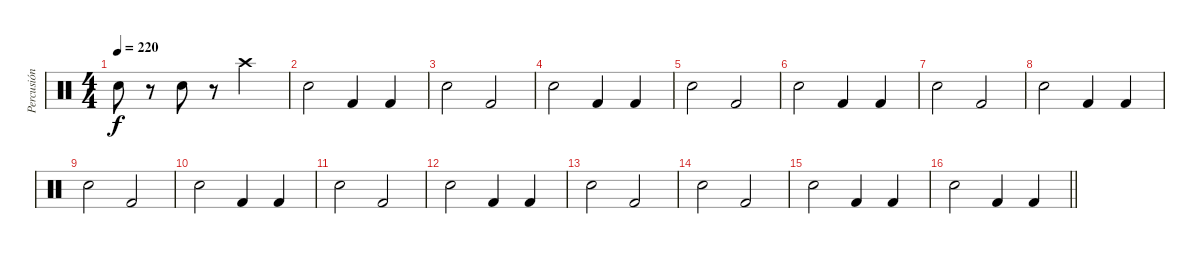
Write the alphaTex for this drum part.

\track ("Percusión" "Percusión") {instrument percussion}
\staff {score}
\articulation defaults
\ts (4 4)
\tempo 220
\clef neutral
\ks c "Electric Snare (hit)".8{dy f}
r.8 "Electric Snare (hit)".8 r.8 "Crash high (hit)".2 |
"Electric Snare (hit)".2 "Kick (hit) 2".4 "Kick (hit) 2".4 |
"Electric Snare (hit)".2 "Kick (hit) 2".2 |
"Electric Snare (hit)".2 "Kick (hit) 2".4 "Kick (hit) 2".4 |
"Electric Snare (hit)".2 "Kick (hit) 2".2 |
"Electric Snare (hit)".2 "Kick (hit) 2".4 "Kick (hit) 2".4 |
"Electric Snare (hit)".2 "Kick (hit) 2".2 |
"Electric Snare (hit)".2 "Kick (hit) 2".4 "Kick (hit) 2".4 |
"Electric Snare (hit)".2 "Kick (hit) 2".2 |
"Electric Snare (hit)".2 "Kick (hit) 2".4 "Kick (hit) 2".4 |
"Electric Snare (hit)".2 "Kick (hit) 2".2 |
"Electric Snare (hit)".2 "Kick (hit) 2".4 "Kick (hit) 2".4 |
"Electric Snare (hit)".2 "Kick (hit) 2".2 |
"Electric Snare (hit)".2 "Kick (hit) 2".2 |
"Electric Snare (hit)".2 "Kick (hit) 2".4 "Kick (hit) 2".4 |
\barLineRight lightlight "Electric Snare (hit)".2 "Kick (hit) 2".4 "Kick (hit) 2".4
